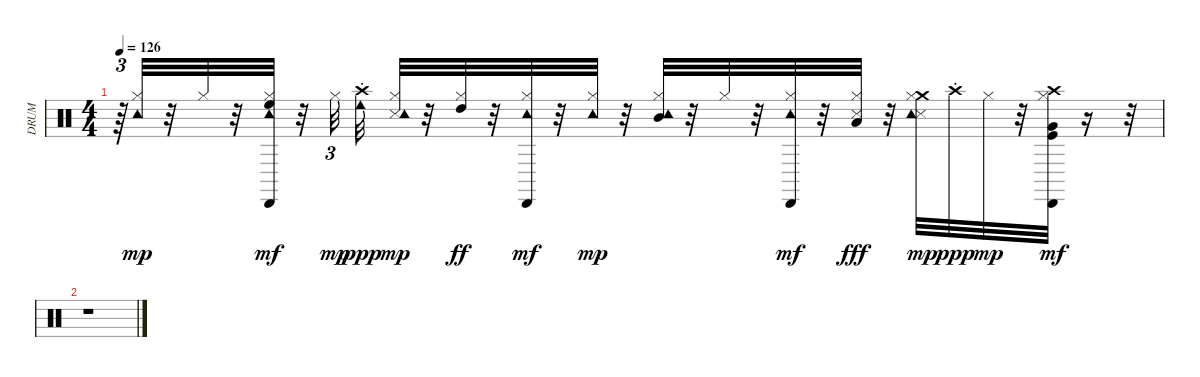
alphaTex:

\track ("DRUM" "DRUM") {instrument percussion}
\staff {score}
\articulation defaults
\ts (4 4)
\tempo 126
\clef neutral
\ks c
r.64{tu (3 2) dy mp} ("Hi-Hat (closed)" "Tambourine (hit)").32 r.32 "Hi-Hat (closed)".32 r.32 ("Hi-Hat (closed)" "High Floor Tom (hit)" "Tambourine (hit)" "Cabasa (hit)").32{dy mf} r.32 "Hi-Hat (closed)".32{tu (3 2) dy mp} ("Cowbell low (hit)" "Crash high (choke)").32{dy ppp} ("Snare (side stick) 3" "Hi-Hat (closed)" "Tambourine (hit)").32{dy mp} r.32 ("Hi-Hat (closed)" "High Tom (hit)").32{dy ff} r.32 ("Hi-Hat (closed)" "Tambourine (hit)" "Cabasa (hit)").32{dy mf} r.32 ("Hi-Hat (closed)" "Tambourine (hit)").32{dy mp} r.32 ("Hi-Hat (closed)" "Mid Tom (hit)" "Tambourine (hit)").32 r.32 "Hi-Hat (closed)".32 r.32 ("Hi-Hat (closed)" "Tambourine (hit)" "Cabasa (hit)").32{dy mf} r.32 ("Snare (side stick) 3" "Hi-Hat (closed)" "Low Tom (hit)").32{dy fff} r.32 ("Crash medium (hit)" "Snare (side stick) 3" "Hi-Hat (closed)" "Tambourine (hit)").32{dy mp} "Crash high (choke)".32{dy ppp} "Hi-Hat (closed)".32{dy mp} r.32 ("Kick (hit)" "Crash high (hit)" "Hi-Hat (closed)" "Very Low Tom (hit)" "Cabasa (hit)").32{dy mf} r.16 r.32 |
r.1
